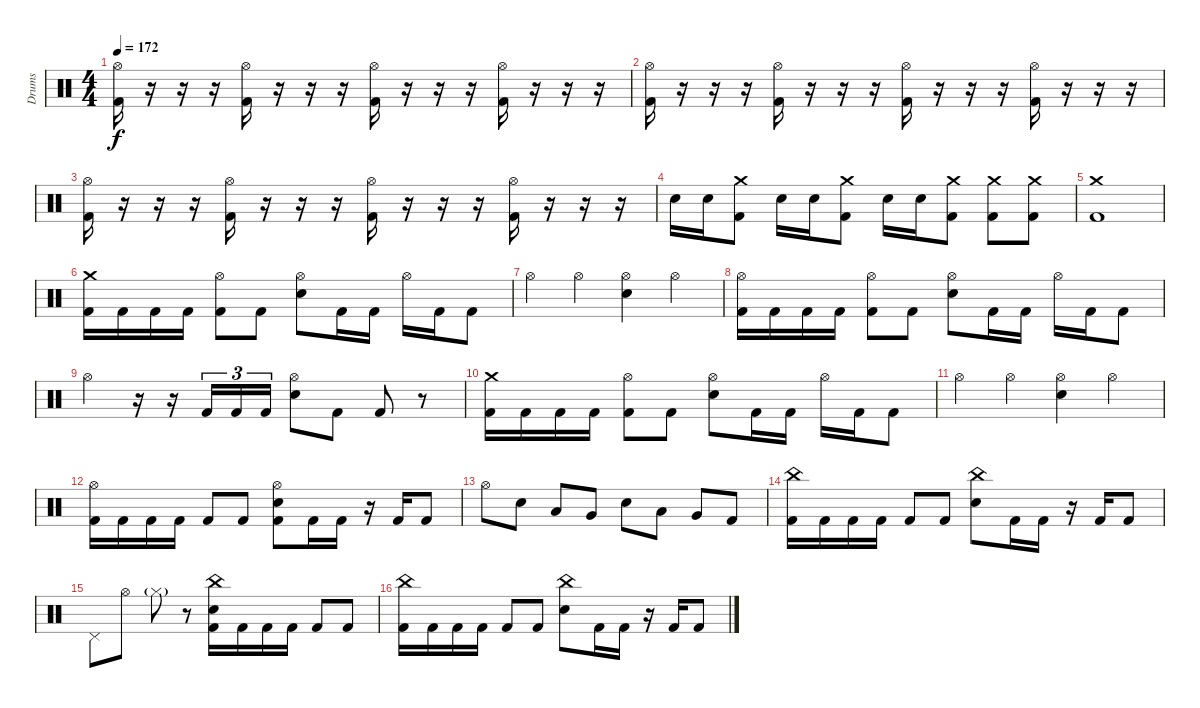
\track ("Drums" "Drums") {instrument percussion}
\staff {score}
\articulation defaults
\ts (4 4)
\tempo 172
\clef neutral
\ks c
("Hi-Hat (open)" "Kick (hit) 2").16{dy f} r.16 r.16 r.16 ("Hi-Hat (open)" "Kick (hit) 2").16 r.16 r.16 r.16 ("Hi-Hat (open)" "Kick (hit) 2").16 r.16 r.16 r.16 ("Hi-Hat (open)" "Kick (hit) 2").16 r.16 r.16 r.16 |
("Hi-Hat (open)" "Kick (hit) 2").16 r.16 r.16 r.16 ("Hi-Hat (open)" "Kick (hit) 2").16 r.16 r.16 r.16 ("Hi-Hat (open)" "Kick (hit) 2").16 r.16 r.16 r.16 ("Hi-Hat (open)" "Kick (hit) 2").16 r.16 r.16 r.16 |
("Hi-Hat (open)" "Kick (hit) 2").16 r.16 r.16 r.16 ("Hi-Hat (open)" "Kick (hit) 2").16 r.16 r.16 r.16 ("Hi-Hat (open)" "Kick (hit) 2").16 r.16 r.16 r.16 ("Hi-Hat (open)" "Kick (hit) 2").16 r.16 r.16 r.16 |
"Electric Snare (hit)".16 "Electric Snare (hit)".16 ("Crash medium (hit)" "Kick (hit) 2").8 "Electric Snare (hit)".16 "Electric Snare (hit)".16 ("Crash medium (hit)" "Kick (hit) 2").8 "Electric Snare (hit)".16 "Electric Snare (hit)".16 ("Crash medium (hit)" "Kick (hit) 2").8 ("Crash medium (hit)" "Kick (hit) 2").8 ("Crash medium (hit)" "Kick (hit) 2").8 |
("Crash medium (hit)" "Kick (hit) 2").1 |
("Crash medium (hit)" "Kick (hit) 2").16 "Kick (hit) 2".16 "Kick (hit) 2".16 "Kick (hit) 2".16 ("Hi-Hat (open)" "Kick (hit) 2").8 "Kick (hit) 2".8 ("Hi-Hat (open)" "Electric Snare (hit)").8 "Kick (hit) 2".16 "Kick (hit) 2".16 "Hi-Hat (open)".16 "Kick (hit) 2".16 "Kick (hit) 2".8 |
"Hi-Hat (open)".4 "Hi-Hat (open)".4 ("Hi-Hat (open)" "Electric Snare (hit)").4 "Hi-Hat (open)".4 |
("Hi-Hat (open)" "Kick (hit) 2").16 "Kick (hit) 2".16 "Kick (hit) 2".16 "Kick (hit) 2".16 ("Hi-Hat (open)" "Kick (hit) 2").8 "Kick (hit) 2".8 ("Hi-Hat (open)" "Electric Snare (hit)").8 "Kick (hit) 2".16 "Kick (hit) 2".16 "Hi-Hat (open)".16 "Kick (hit) 2".16 "Kick (hit) 2".8 |
"Hi-Hat (open)".4 r.16 r.16 "Kick (hit) 2".16{tu (3 2)} "Kick (hit) 2".16{tu (3 2)} "Kick (hit) 2".16{tu (3 2)} ("Hi-Hat (open)" "Electric Snare (hit)").8 "Kick (hit) 2".8 "Kick (hit) 2".8 r.8 |
("Crash medium (hit)" "Kick (hit) 2").16 "Kick (hit) 2".16 "Kick (hit) 2".16 "Kick (hit) 2".16 ("Hi-Hat (open)" "Kick (hit) 2").8 "Kick (hit) 2".8 ("Hi-Hat (open)" "Electric Snare (hit)").8 "Kick (hit) 2".16 "Kick (hit) 2".16 "Hi-Hat (open)".16 "Kick (hit) 2".16 "Kick (hit) 2".8 |
"Hi-Hat (open)".4 "Hi-Hat (open)".4 ("Hi-Hat (open)" "Electric Snare (hit)").4 "Hi-Hat (open)".4 |
("Hi-Hat (open)" "Kick (hit) 2").16 "Kick (hit) 2".16 "Kick (hit) 2".16 "Kick (hit) 2".16 "Kick (hit) 2".8 "Kick (hit) 2".8 ("Hi-Hat (open)" "Electric Snare (hit)" "Kick (hit) 2").8 "Kick (hit) 2".16 "Kick (hit) 2".16 r.16 "Kick (hit) 2".16 "Kick (hit) 2".8 |
"Hi-Hat (open)".8 "Electric Snare (hit)".8 "Low Tom (hit)".8 "Very Low Tom (hit)".8 "Electric Snare (hit)".8 "Low Tom (hit)".8 "Very Low Tom (hit)".8 "Kick (hit) 2".8 |
("China (hit)" "Kick (hit) 2").16 "Kick (hit) 2".16 "Kick (hit) 2".16 "Kick (hit) 2".16 "Kick (hit) 2".8 "Kick (hit) 2".8 ("China (hit)" "Electric Snare (hit)").8 "Kick (hit) 2".16 "Kick (hit) 2".16 r.16 "Kick (hit) 2".16 "Kick (hit) 2".8 |
"Pedal Hi-Hat (hit)".8 "Hi-Hat (open)".8 "Hi-Hat (closed)"{g}.8 r.8 ("China (hit)" "Electric Snare (hit)" "Kick (hit) 2").16 "Kick (hit) 2".16 "Kick (hit) 2".16 "Kick (hit) 2".16 "Kick (hit) 2".8 "Kick (hit) 2".8 |
("China (hit)" "Kick (hit) 2").16 "Kick (hit) 2".16 "Kick (hit) 2".16 "Kick (hit) 2".16 "Kick (hit) 2".8 "Kick (hit) 2".8 ("China (hit)" "Electric Snare (hit)").8 "Kick (hit) 2".16 "Kick (hit) 2".16 r.16 "Kick (hit) 2".16 "Kick (hit) 2".8
